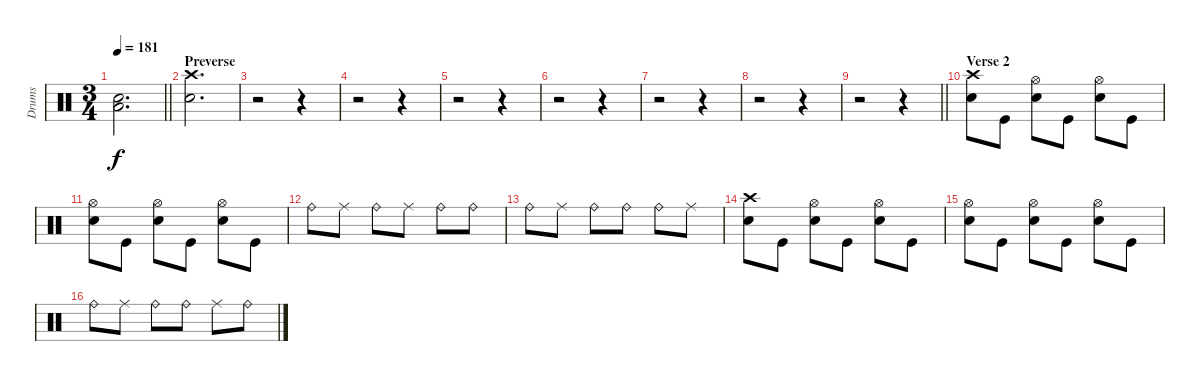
\track ("Drums" "Drums") {instrument percussion}
\staff {score}
\articulation defaults
\ts (3 4)
\tempo 181
\clef neutral
\barLineRight lightlight
\ks c
("Electric Snare (hit)" "Low Floor Tom (hit)").2{d dy f} |
\section ("" "Preverse")
("Crash high (hit)" "Electric Snare (hit)").2{d} |
r.2 r.4 |
r.2 r.4 |
r.2 r.4 |
r.2 r.4 |
r.2 r.4 |
r.2 r.4 |
\barLineRight lightlight
r.2 r.4 |
\section ("" "Verse 2")
("Crash high (hit)" "Electric Snare (hit)").8 "Kick (hit)".8 ("Hi-Hat (open)" "Electric Snare (hit)").8 "Kick (hit)".8 ("Hi-Hat (open)" "Electric Snare (hit)").8 "Kick (hit)".8 |
("Hi-Hat (open)" "Electric Snare (hit)").8 "Kick (hit)".8 ("Hi-Hat (open)" "Electric Snare (hit)").8 "Kick (hit)".8 ("Hi-Hat (open)" "Electric Snare (hit)").8 "Kick (hit)".8 |
"Ride (bell)".8 "Ride (middle)".8 "Ride (bell)".8 "Ride (middle)".8 "Ride (bell)".8 "Ride (bell)".8 |
"Ride (bell)".8 "Ride (middle)".8 "Ride (bell)".8 "Ride (bell)".8 "Ride (bell)".8 "Ride (middle)".8 |
("Crash high (hit)" "Electric Snare (hit)").8 "Kick (hit)".8 ("Hi-Hat (open)" "Electric Snare (hit)").8 "Kick (hit)".8 ("Hi-Hat (open)" "Electric Snare (hit)").8 "Kick (hit)".8 |
("Hi-Hat (open)" "Electric Snare (hit)").8 "Kick (hit)".8 ("Hi-Hat (open)" "Electric Snare (hit)").8 "Kick (hit)".8 ("Hi-Hat (open)" "Electric Snare (hit)").8 "Kick (hit)".8 |
"Ride (bell)".8 "Ride (middle)".8 "Ride (bell)".8 "Ride (bell)".8 "Ride (middle)".8 "Ride (bell)".8
